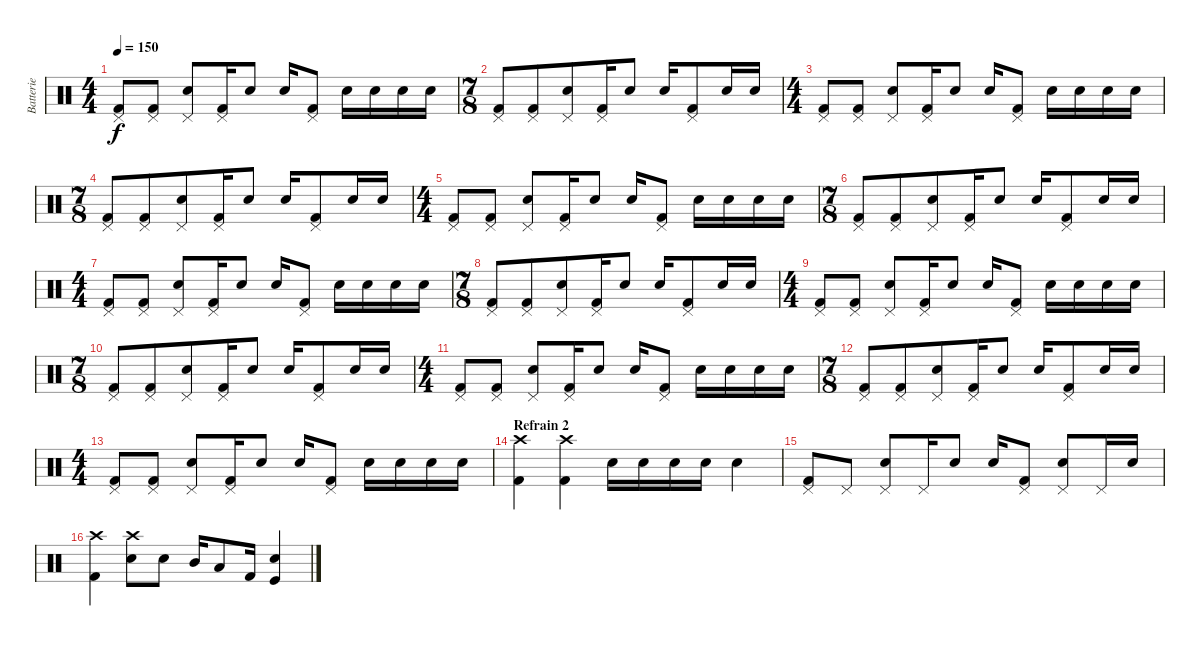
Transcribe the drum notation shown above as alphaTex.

\track ("Batterie" "Batterie") {instrument percussion}
\staff {score}
\articulation defaults
\ts (4 4)
\tempo 150
\clef neutral
\ks c
("Pedal Hi-Hat (hit)" "Kick (hit) 2").8{dy f} ("Pedal Hi-Hat (hit)" "Kick (hit) 2").8 ("Pedal Hi-Hat (hit)" "Electric Snare (hit)").8 ("Pedal Hi-Hat (hit)" "Kick (hit) 2").16 "Electric Snare (hit)".8 "Electric Snare (hit)".16 ("Pedal Hi-Hat (hit)" "Kick (hit) 2").8 "Electric Snare (hit)".16 "Electric Snare (hit)".16 "Electric Snare (hit)".16 "Electric Snare (hit)".16 |
\ts (7 8)
("Pedal Hi-Hat (hit)" "Kick (hit) 2").8 ("Pedal Hi-Hat (hit)" "Kick (hit) 2").8 ("Pedal Hi-Hat (hit)" "Electric Snare (hit)").8 ("Pedal Hi-Hat (hit)" "Kick (hit) 2").16 "Electric Snare (hit)".8 "Electric Snare (hit)".16 ("Pedal Hi-Hat (hit)" "Kick (hit) 2").8 "Electric Snare (hit)".16 "Electric Snare (hit)".16 |
\ts (4 4)
("Pedal Hi-Hat (hit)" "Kick (hit) 2").8 ("Pedal Hi-Hat (hit)" "Kick (hit) 2").8 ("Pedal Hi-Hat (hit)" "Electric Snare (hit)").8 ("Pedal Hi-Hat (hit)" "Kick (hit) 2").16 "Electric Snare (hit)".8 "Electric Snare (hit)".16 ("Pedal Hi-Hat (hit)" "Kick (hit) 2").8 "Electric Snare (hit)".16 "Electric Snare (hit)".16 "Electric Snare (hit)".16 "Electric Snare (hit)".16 |
\ts (7 8)
("Pedal Hi-Hat (hit)" "Kick (hit) 2").8 ("Pedal Hi-Hat (hit)" "Kick (hit) 2").8 ("Pedal Hi-Hat (hit)" "Electric Snare (hit)").8 ("Pedal Hi-Hat (hit)" "Kick (hit) 2").16 "Electric Snare (hit)".8 "Electric Snare (hit)".16 ("Pedal Hi-Hat (hit)" "Kick (hit) 2").8 "Electric Snare (hit)".16 "Electric Snare (hit)".16 |
\ts (4 4)
("Pedal Hi-Hat (hit)" "Kick (hit) 2").8 ("Pedal Hi-Hat (hit)" "Kick (hit) 2").8 ("Pedal Hi-Hat (hit)" "Electric Snare (hit)").8 ("Pedal Hi-Hat (hit)" "Kick (hit) 2").16 "Electric Snare (hit)".8 "Electric Snare (hit)".16 ("Pedal Hi-Hat (hit)" "Kick (hit) 2").8 "Electric Snare (hit)".16 "Electric Snare (hit)".16 "Electric Snare (hit)".16 "Electric Snare (hit)".16 |
\ts (7 8)
("Pedal Hi-Hat (hit)" "Kick (hit) 2").8 ("Pedal Hi-Hat (hit)" "Kick (hit) 2").8 ("Pedal Hi-Hat (hit)" "Electric Snare (hit)").8 ("Pedal Hi-Hat (hit)" "Kick (hit) 2").16 "Electric Snare (hit)".8 "Electric Snare (hit)".16 ("Pedal Hi-Hat (hit)" "Kick (hit) 2").8 "Electric Snare (hit)".16 "Electric Snare (hit)".16 |
\ts (4 4)
("Pedal Hi-Hat (hit)" "Kick (hit) 2").8 ("Pedal Hi-Hat (hit)" "Kick (hit) 2").8 ("Pedal Hi-Hat (hit)" "Electric Snare (hit)").8 ("Pedal Hi-Hat (hit)" "Kick (hit) 2").16 "Electric Snare (hit)".8 "Electric Snare (hit)".16 ("Pedal Hi-Hat (hit)" "Kick (hit) 2").8 "Electric Snare (hit)".16 "Electric Snare (hit)".16 "Electric Snare (hit)".16 "Electric Snare (hit)".16 |
\ts (7 8)
("Pedal Hi-Hat (hit)" "Kick (hit) 2").8 ("Pedal Hi-Hat (hit)" "Kick (hit) 2").8 ("Pedal Hi-Hat (hit)" "Electric Snare (hit)").8 ("Pedal Hi-Hat (hit)" "Kick (hit) 2").16 "Electric Snare (hit)".8 "Electric Snare (hit)".16 ("Pedal Hi-Hat (hit)" "Kick (hit) 2").8 "Electric Snare (hit)".16 "Electric Snare (hit)".16 |
\ts (4 4)
("Pedal Hi-Hat (hit)" "Kick (hit) 2").8 ("Pedal Hi-Hat (hit)" "Kick (hit) 2").8 ("Pedal Hi-Hat (hit)" "Electric Snare (hit)").8 ("Pedal Hi-Hat (hit)" "Kick (hit) 2").16 "Electric Snare (hit)".8 "Electric Snare (hit)".16 ("Pedal Hi-Hat (hit)" "Kick (hit) 2").8 "Electric Snare (hit)".16 "Electric Snare (hit)".16 "Electric Snare (hit)".16 "Electric Snare (hit)".16 |
\ts (7 8)
("Pedal Hi-Hat (hit)" "Kick (hit) 2").8 ("Pedal Hi-Hat (hit)" "Kick (hit) 2").8 ("Pedal Hi-Hat (hit)" "Electric Snare (hit)").8 ("Pedal Hi-Hat (hit)" "Kick (hit) 2").16 "Electric Snare (hit)".8 "Electric Snare (hit)".16 ("Pedal Hi-Hat (hit)" "Kick (hit) 2").8 "Electric Snare (hit)".16 "Electric Snare (hit)".16 |
\ts (4 4)
("Pedal Hi-Hat (hit)" "Kick (hit) 2").8 ("Pedal Hi-Hat (hit)" "Kick (hit) 2").8 ("Pedal Hi-Hat (hit)" "Electric Snare (hit)").8 ("Pedal Hi-Hat (hit)" "Kick (hit) 2").16 "Electric Snare (hit)".8 "Electric Snare (hit)".16 ("Pedal Hi-Hat (hit)" "Kick (hit) 2").8 "Electric Snare (hit)".16 "Electric Snare (hit)".16 "Electric Snare (hit)".16 "Electric Snare (hit)".16 |
\ts (7 8)
("Pedal Hi-Hat (hit)" "Kick (hit) 2").8 ("Pedal Hi-Hat (hit)" "Kick (hit) 2").8 ("Pedal Hi-Hat (hit)" "Electric Snare (hit)").8 ("Pedal Hi-Hat (hit)" "Kick (hit) 2").16 "Electric Snare (hit)".8 "Electric Snare (hit)".16 ("Pedal Hi-Hat (hit)" "Kick (hit) 2").8 "Electric Snare (hit)".16 "Electric Snare (hit)".16 |
\ts (4 4)
("Pedal Hi-Hat (hit)" "Kick (hit) 2").8 ("Pedal Hi-Hat (hit)" "Kick (hit) 2").8 ("Pedal Hi-Hat (hit)" "Electric Snare (hit)").8 ("Pedal Hi-Hat (hit)" "Kick (hit) 2").16 "Electric Snare (hit)".8 "Electric Snare (hit)".16 ("Pedal Hi-Hat (hit)" "Kick (hit) 2").8 "Electric Snare (hit)".16 "Electric Snare (hit)".16 "Electric Snare (hit)".16 "Electric Snare (hit)".16 |
\section ("" "Refrain 2")
("Crash high (hit)" "Kick (hit) 2").4 ("Crash high (hit)" "Kick (hit) 2").4 "Electric Snare (hit)".16 "Electric Snare (hit)".16 "Electric Snare (hit)".16 "Electric Snare (hit)".16 "Electric Snare (hit)".4 |
("Pedal Hi-Hat (hit)" "Kick (hit) 2").8 "Pedal Hi-Hat (hit)".8 ("Pedal Hi-Hat (hit)" "Electric Snare (hit)").8 "Pedal Hi-Hat (hit)".16 "Electric Snare (hit)".8 "Electric Snare (hit)".16 ("Pedal Hi-Hat (hit)" "Kick (hit) 2").8 ("Pedal Hi-Hat (hit)" "Electric Snare (hit)").8 "Pedal Hi-Hat (hit)".16 "Electric Snare (hit)".16 |
("Crash high (hit)" "Kick (hit) 2").4 ("Crash high (hit)" "Electric Snare (hit)").8 "Electric Snare (hit)".8 "Mid Tom (hit)".16 "Low Tom (hit)".8 "Kick (hit) 2".16 ("Electric Snare (hit)" "Kick (hit)").4
